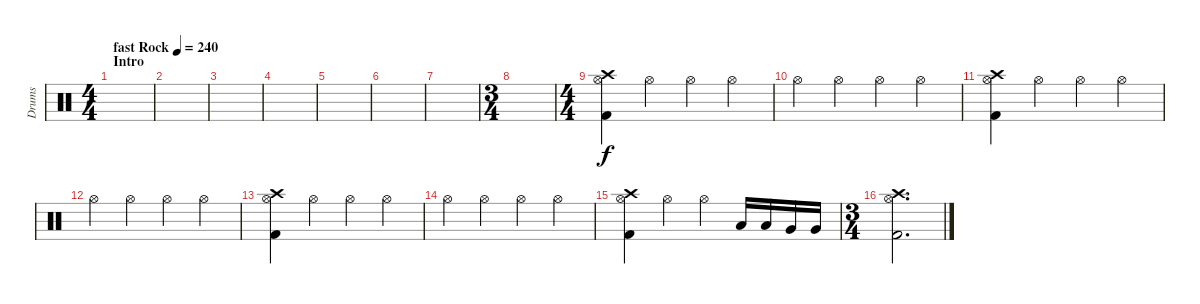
\track ("Drums" "Drums") {instrument percussion}
\staff {score}
\articulation defaults
\ts (4 4)
\section ("" "Intro")
\tempo (240 "fast Rock")
\clef neutral
\ks c
|
|
|
|
|
|
|
\ts (3 4)
|
\ts (4 4)
("Crash high (hit)" "Hi-Hat (open)" "Kick (hit) 2").4 "Hi-Hat (open)".4 "Hi-Hat (open)".4 "Hi-Hat (open)".4 |
"Hi-Hat (open)".4 "Hi-Hat (open)".4 "Hi-Hat (open)".4 "Hi-Hat (open)".4 |
("Crash high (hit)" "Hi-Hat (open)" "Kick (hit) 2").4 "Hi-Hat (open)".4 "Hi-Hat (open)".4 "Hi-Hat (open)".4 |
"Hi-Hat (open)".4 "Hi-Hat (open)".4 "Hi-Hat (open)".4 "Hi-Hat (open)".4 |
("Crash high (hit)" "Hi-Hat (open)" "Kick (hit) 2").4 "Hi-Hat (open)".4 "Hi-Hat (open)".4 "Hi-Hat (open)".4 |
"Hi-Hat (open)".4 "Hi-Hat (open)".4 "Hi-Hat (open)".4 "Hi-Hat (open)".4 |
("Crash high (hit)" "Hi-Hat (open)" "Kick (hit) 2").4 "Hi-Hat (open)".4 "Hi-Hat (open)".4 "Low Tom (hit)".16 "Low Tom (hit)".16 "Very Low Tom (hit)".16 "Very Low Tom (hit)".16 |
\ts (3 4)
("Crash high (hit)" "Hi-Hat (open)" "Kick (hit) 2").2{d}
